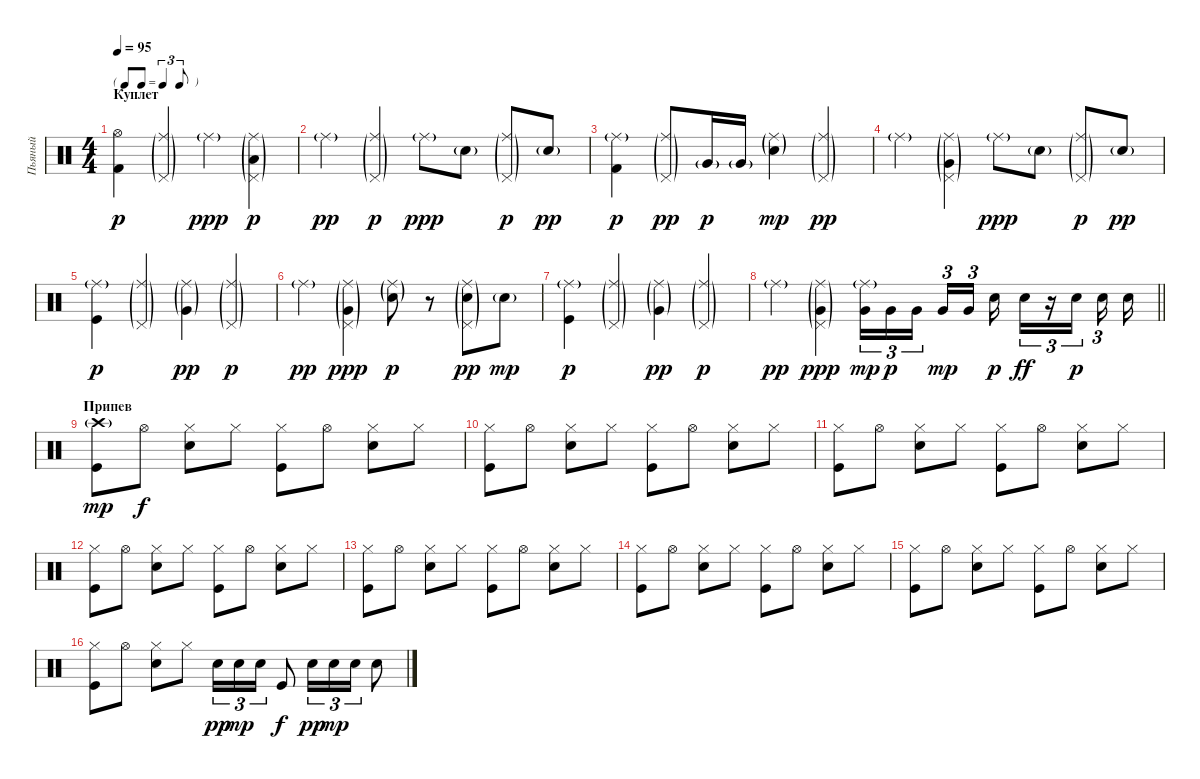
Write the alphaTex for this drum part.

\track ("Пьяный" "Пьяный") {instrument percussion}
\staff {score}
\articulation defaults
\ts (4 4)
\tf triplet8th
\section ("" "Куплет")
\tempo 95
\clef neutral
\ks c
("Hi-Hat (open)" "Kick (hit) 2").4{dy p} ("Ride (middle)"{g} "Pedal Hi-Hat (hit)"{g}).4 "Ride (middle)"{g}.4{dy ppp} ("Ride (middle)"{g} "Pedal Hi-Hat (hit)"{g} "Low Tom (hit)"{g}).4{dy p} |
"Ride (middle)"{g}.4{dy pp} ("Ride (middle)"{g} "Pedal Hi-Hat (hit)"{g}).4{dy p} "Ride (middle)"{g}.8{dy ppp} "Snare (hit) 2"{g}.8 ("Ride (middle)"{g} "Pedal Hi-Hat (hit)"{g}).8{dy p} "Snare (hit) 2"{g}.8{dy pp} |
("Ride (middle)"{g} "Kick (hit) 2").4{dy p} ("Ride (middle)"{g} "Pedal Hi-Hat (hit)"{g}).8{dy pp} "Very Low Tom (hit)"{g}.16{dy p} "Very Low Tom (hit)"{g}.16 ("Ride (middle)"{g} "Snare (hit) 2"{g}).4{dy mp} ("Ride (middle)"{g} "Pedal Hi-Hat (hit)"{g}).4{dy pp} |
"Ride (middle)"{g}.4 ("Ride (middle)"{g} "Pedal Hi-Hat (hit)"{g} "Very Low Tom (hit)"{g}).4 "Ride (middle)"{g}.8{dy ppp} "Snare (hit) 2"{g}.8 ("Ride (middle)"{g} "Pedal Hi-Hat (hit)"{g}).8{dy p} "Snare (hit) 2"{g}.8{dy pp} |
("Ride (middle)"{g} "Kick (hit)").4{dy p} ("Ride (middle)"{g} "Pedal Hi-Hat (hit)"{g}).4 ("Ride (middle)"{g} "Very Low Tom (hit)"{g}).4{dy pp} ("Ride (middle)"{g} "Pedal Hi-Hat (hit)"{g}).4{dy p} |
"Ride (middle)"{g}.4{dy pp} ("Ride (middle)"{g} "Pedal Hi-Hat (hit)"{g} "Very Low Tom (hit)"{g}).4{dy ppp} ("Ride (middle)"{g} "Snare (hit) 2"{g}).8{dy p} r.8 ("Ride (middle)"{g} "Pedal Hi-Hat (hit)"{g} "Snare (hit) 2"{g}).8{dy pp} "Snare (hit) 2"{g}.8{dy mp} |
("Ride (middle)"{g} "Kick (hit)").4{dy p} ("Ride (middle)"{g} "Pedal Hi-Hat (hit)"{g}).4 ("Ride (middle)"{g} "Very Low Tom (hit)"{g}).4{dy pp} ("Ride (middle)"{g} "Pedal Hi-Hat (hit)"{g}).4{dy p} |
\barLineRight lightlight "Ride (middle)"{g}.4{dy pp}
("Ride (middle)"{g} "Pedal Hi-Hat (hit)"{g} "Very Low Tom (hit)"{g}).4{dy ppp} ("Ride (middle)"{g} "Very Low Tom (hit)").16{tu (3 2) dy mp} "Very Low Tom (hit)".16{tu (3 2) dy p} "Very Low Tom (hit)".16{tu (3 2) beam splitsecondary} "Very Low Tom (hit)".16{tu (3 2) dy mp} "Very Low Tom (hit)".16{tu (3 2) beam splitsecondary} "Snare (hit) 2".16{dy p} "Snare (hit) 2".16{tu (3 2) dy ff} r.16{tu (3 2)} "Snare (hit) 2".16{tu (3 2) dy p beam splitsecondary} "Snare (hit) 2".16{tu (3 2)} "Snare (hit) 2".16 |
\section ("" "Припев")
("Crash high (hit)"{g} "Kick (hit)").8{dy mp} "Hi-Hat (open)".8{dy f} ("Hi-Hat (closed)" "Snare (hit) 2").8 "Hi-Hat (closed)".8 ("Hi-Hat (closed)" "Kick (hit)").8 "Hi-Hat (open)".8 ("Hi-Hat (closed)" "Snare (hit) 2").8 "Hi-Hat (closed)".8 |
("Hi-Hat (closed)" "Kick (hit)").8 "Hi-Hat (open)".8 ("Hi-Hat (closed)" "Snare (hit) 2").8 "Hi-Hat (closed)".8 ("Hi-Hat (closed)" "Kick (hit)").8 "Hi-Hat (open)".8 ("Hi-Hat (closed)" "Snare (hit) 2").8 "Hi-Hat (closed)".8 |
("Hi-Hat (closed)" "Kick (hit)").8 "Hi-Hat (open)".8 ("Hi-Hat (closed)" "Snare (hit) 2").8 "Hi-Hat (closed)".8 ("Hi-Hat (closed)" "Kick (hit)").8 "Hi-Hat (open)".8 ("Hi-Hat (closed)" "Snare (hit) 2").8 "Hi-Hat (closed)".8 |
("Hi-Hat (closed)" "Kick (hit)").8 "Hi-Hat (open)".8 ("Hi-Hat (closed)" "Snare (hit) 2").8 "Hi-Hat (closed)".8 ("Hi-Hat (closed)" "Kick (hit)").8 "Hi-Hat (open)".8 ("Hi-Hat (closed)" "Snare (hit) 2").8 "Hi-Hat (closed)".8 |
("Hi-Hat (closed)" "Kick (hit)").8 "Hi-Hat (open)".8 ("Hi-Hat (closed)" "Snare (hit) 2").8 "Hi-Hat (closed)".8 ("Hi-Hat (closed)" "Kick (hit)").8 "Hi-Hat (open)".8 ("Hi-Hat (closed)" "Snare (hit) 2").8 "Hi-Hat (closed)".8 |
("Hi-Hat (closed)" "Kick (hit)").8 "Hi-Hat (open)".8 ("Hi-Hat (closed)" "Snare (hit) 2").8 "Hi-Hat (closed)".8 ("Hi-Hat (closed)" "Kick (hit)").8 "Hi-Hat (open)".8 ("Hi-Hat (closed)" "Snare (hit) 2").8 "Hi-Hat (closed)".8 |
("Hi-Hat (closed)" "Kick (hit)").8 "Hi-Hat (open)".8 ("Hi-Hat (closed)" "Snare (hit) 2").8 "Hi-Hat (closed)".8 ("Hi-Hat (closed)" "Kick (hit)").8 "Hi-Hat (open)".8 ("Hi-Hat (closed)" "Snare (hit) 2").8 "Hi-Hat (closed)".8 |
("Hi-Hat (closed)" "Kick (hit)").8 "Hi-Hat (open)".8 ("Hi-Hat (closed)" "Snare (hit) 2").8 "Hi-Hat (closed)".8 "Snare (hit) 2".16{tu (3 2) dy pp} "Snare (hit) 2".16{tu (3 2) dy mp} "Snare (hit) 2".16{tu (3 2)} "Kick (hit)".8{dy f} "Snare (hit) 2".16{tu (3 2) dy pp} "Snare (hit) 2".16{tu (3 2) dy mp} "Snare (hit) 2".16{tu (3 2)} "Snare (hit) 2".8
